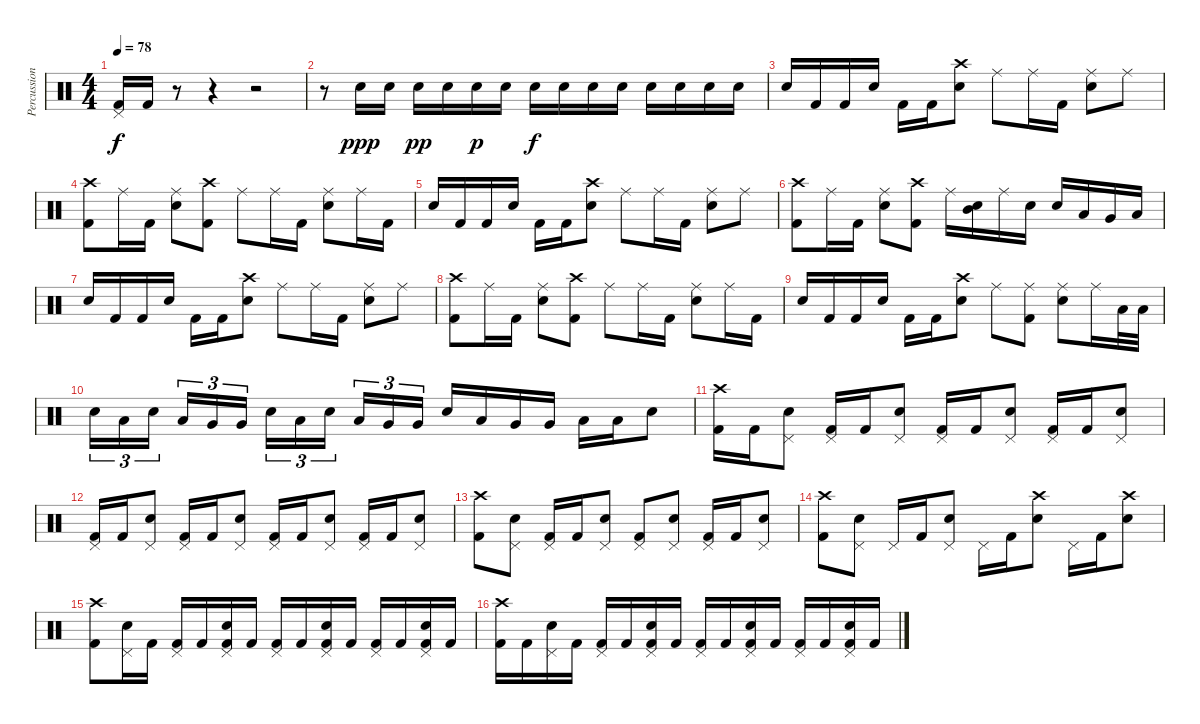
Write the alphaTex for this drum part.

\track ("Percussion" "Percussion") {instrument percussion}
\staff {score}
\articulation defaults
\ts (4 4)
\tempo 78
\clef neutral
\ks c
("Pedal Hi-Hat (hit)" "Kick (hit) 2").16{dy f} "Kick (hit) 2".16 r.8 r.4 r.2 |
r.8 "Snare (hit) 2".16{dy ppp} "Snare (hit) 2".16 "Snare (hit) 2".16{dy pp} "Snare (hit) 2".16 "Snare (hit) 2".16{dy p} "Snare (hit) 2".16 "Snare (hit) 2".16{dy f} "Snare (hit) 2".16 "Snare (hit) 2".16 "Snare (hit) 2".16 "Snare (hit) 2".16 "Snare (hit) 2".16 "Snare (hit) 2".16 "Snare (hit) 2".16 |
"Snare (hit) 2".16 "Kick (hit) 2".16 "Kick (hit) 2".16 "Snare (hit) 2".16 "Kick (hit) 2".16 "Kick (hit) 2".16 ("Crash high (hit)" "Snare (hit) 2").8 "Ride (middle)".8 "Ride (middle)".16 "Kick (hit) 2".16 ("Ride (middle)" "Snare (hit) 2").8 "Ride (middle)".8 |
("Crash high (hit)" "Kick (hit) 2").8 "Ride (middle)".16 "Kick (hit) 2".16 ("Ride (middle)" "Snare (hit) 2").8 ("Crash high (hit)" "Kick (hit) 2").8 "Ride (middle)".8 "Ride (middle)".16 "Kick (hit) 2".16 ("Ride (middle)" "Snare (hit) 2").8 "Ride (middle)".16 "Kick (hit) 2".16 |
"Snare (hit) 2".16 "Kick (hit) 2".16 "Kick (hit) 2".16 "Snare (hit) 2".16 "Kick (hit) 2".16 "Kick (hit) 2".16 ("Crash high (hit)" "Snare (hit) 2").8 "Ride (middle)".8 "Ride (middle)".16 "Kick (hit) 2".16 ("Ride (middle)" "Snare (hit) 2").8 "Ride (middle)".8 |
("Crash high (hit)" "Kick (hit) 2").8 "Ride (middle)".16 "Kick (hit) 2".16 ("Ride (middle)" "Snare (hit) 2").8 ("Crash high (hit)" "Kick (hit) 2").8 "Ride (middle)".16 ("Mid Tom (hit)" "Snare (hit) 2").16 "Ride (middle)".16 "Snare (hit) 2".16 "Snare (hit) 2".16 "Low Tom (hit)".16 "Very Low Tom (hit)".16 "Low Floor Tom (hit)".16 |
"Snare (hit) 2".16 "Kick (hit) 2".16 "Kick (hit) 2".16 "Snare (hit) 2".16 "Kick (hit) 2".16 "Kick (hit) 2".16 ("Crash high (hit)" "Snare (hit) 2").8 "Ride (middle)".8 "Ride (middle)".16 "Kick (hit) 2".16 ("Ride (middle)" "Snare (hit) 2").8 "Ride (middle)".8 |
("Crash high (hit)" "Kick (hit) 2").8 "Ride (middle)".16 "Kick (hit) 2".16 ("Ride (middle)" "Snare (hit) 2").8 ("Crash high (hit)" "Kick (hit) 2").8 "Ride (middle)".8 "Ride (middle)".16 "Kick (hit) 2".16 ("Ride (middle)" "Snare (hit) 2").8 "Ride (middle)".16 "Kick (hit) 2".16 |
"Snare (hit) 2".16 "Kick (hit) 2".16 "Kick (hit) 2".16 "Snare (hit) 2".16 "Kick (hit) 2".16 "Kick (hit) 2".16 ("Crash high (hit)" "Snare (hit) 2").8 "Ride (middle)".8 ("Ride (middle)" "Kick (hit) 2").8 ("Ride (middle)" "Snare (hit) 2").8 "Ride (middle)".16 "Low Tom (hit)".32 "Low Tom (hit)".32 |
"Snare (hit) 2".16{tu (3 2)} "Low Tom (hit)".16{tu (3 2)} "Snare (hit) 2".16{tu (3 2)} "Low Tom (hit)".16{tu (3 2)} "Very Low Tom (hit)".16{tu (3 2)} "Very Low Tom (hit)".16{tu (3 2)} "Snare (hit) 2".16{tu (3 2)} "Low Tom (hit)".16{tu (3 2)} "Snare (hit) 2".16{tu (3 2)} "Low Tom (hit)".16{tu (3 2)} "Very Low Tom (hit)".16{tu (3 2)} "Very Low Tom (hit)".16{tu (3 2)} "Snare (hit) 2".16 "Low Tom (hit)".16 "Very Low Tom (hit)".16 "Very Low Tom (hit)".16 "Low Floor Tom (hit)".16 "Low Floor Tom (hit)".16 "Snare (hit) 2".8 |
("Crash high (hit)" "Kick (hit) 2").16 "Kick (hit) 2".16 ("Pedal Hi-Hat (hit)" "Snare (hit) 2").8 ("Pedal Hi-Hat (hit)" "Kick (hit) 2").16 "Kick (hit) 2".16 ("Pedal Hi-Hat (hit)" "Snare (hit) 2").8 ("Pedal Hi-Hat (hit)" "Kick (hit) 2").16 "Kick (hit) 2".16 ("Pedal Hi-Hat (hit)" "Snare (hit) 2").8 ("Pedal Hi-Hat (hit)" "Kick (hit) 2").16 "Kick (hit) 2".16 ("Pedal Hi-Hat (hit)" "Snare (hit) 2").8 |
("Pedal Hi-Hat (hit)" "Kick (hit) 2").16 "Kick (hit) 2".16 ("Pedal Hi-Hat (hit)" "Snare (hit) 2").8 ("Pedal Hi-Hat (hit)" "Kick (hit) 2").16 "Kick (hit) 2".16 ("Pedal Hi-Hat (hit)" "Snare (hit) 2").8 ("Pedal Hi-Hat (hit)" "Kick (hit) 2").16 "Kick (hit) 2".16 ("Pedal Hi-Hat (hit)" "Snare (hit) 2").8 ("Pedal Hi-Hat (hit)" "Kick (hit) 2").16 "Kick (hit) 2".16 ("Pedal Hi-Hat (hit)" "Snare (hit) 2").8 |
("Crash high (hit)" "Kick (hit) 2").8 ("Pedal Hi-Hat (hit)" "Snare (hit) 2").8 ("Pedal Hi-Hat (hit)" "Kick (hit) 2").16 "Kick (hit) 2".16 ("Pedal Hi-Hat (hit)" "Snare (hit) 2").8 ("Pedal Hi-Hat (hit)" "Kick (hit) 2").8 ("Pedal Hi-Hat (hit)" "Snare (hit) 2").8 ("Pedal Hi-Hat (hit)" "Kick (hit) 2").16 "Kick (hit) 2".16 ("Pedal Hi-Hat (hit)" "Snare (hit) 2").8 |
("Crash high (hit)" "Kick (hit) 2").8 ("Pedal Hi-Hat (hit)" "Snare (hit) 2").8 "Pedal Hi-Hat (hit)".16 "Kick (hit) 2".16 ("Pedal Hi-Hat (hit)" "Snare (hit) 2").8 "Pedal Hi-Hat (hit)".16 "Kick (hit) 2".16 ("Crash high (hit)" "Snare (hit) 2").8 "Pedal Hi-Hat (hit)".16 "Kick (hit) 2".16 ("Crash high (hit)" "Snare (hit) 2").8 |
("Crash high (hit)" "Kick (hit) 2").8 ("Pedal Hi-Hat (hit)" "Snare (hit) 2").16 "Kick (hit) 2".16 ("Pedal Hi-Hat (hit)" "Kick (hit) 2").16 "Kick (hit) 2".16 ("Pedal Hi-Hat (hit)" "Snare (hit) 2" "Kick (hit) 2").16 "Kick (hit) 2".16 ("Pedal Hi-Hat (hit)" "Kick (hit) 2").16 "Kick (hit) 2".16 ("Pedal Hi-Hat (hit)" "Snare (hit) 2" "Kick (hit) 2").16 "Kick (hit) 2".16 ("Pedal Hi-Hat (hit)" "Kick (hit) 2").16 "Kick (hit) 2".16 ("Pedal Hi-Hat (hit)" "Snare (hit) 2" "Kick (hit) 2").16 "Kick (hit) 2".16 |
("Crash high (hit)" "Kick (hit) 2").16 "Kick (hit) 2".16 ("Pedal Hi-Hat (hit)" "Snare (hit) 2").16 "Kick (hit) 2".16 ("Pedal Hi-Hat (hit)" "Kick (hit) 2").16 "Kick (hit) 2".16 ("Pedal Hi-Hat (hit)" "Snare (hit) 2" "Kick (hit) 2").16 "Kick (hit) 2".16 ("Pedal Hi-Hat (hit)" "Kick (hit) 2").16 "Kick (hit) 2".16 ("Pedal Hi-Hat (hit)" "Snare (hit) 2" "Kick (hit) 2").16 "Kick (hit) 2".16 ("Pedal Hi-Hat (hit)" "Kick (hit) 2").16 "Kick (hit) 2".16 ("Pedal Hi-Hat (hit)" "Snare (hit) 2" "Kick (hit) 2").16 "Kick (hit) 2".16
